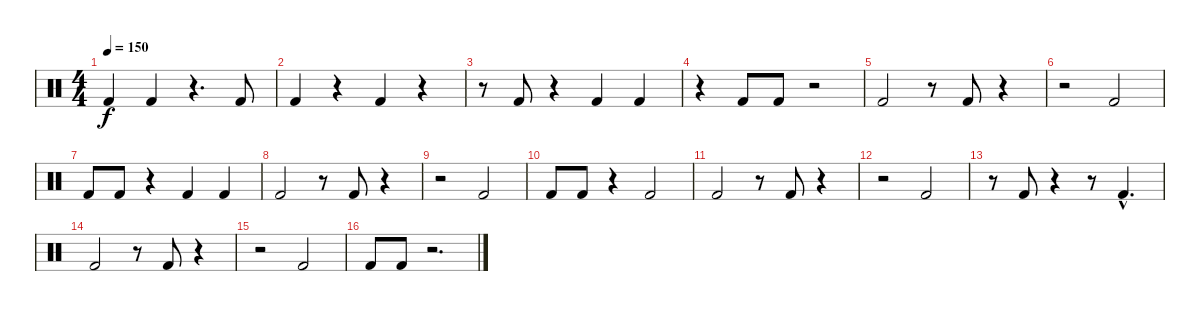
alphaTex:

\track "" {instrument percussion}
\staff {score}
\articulation defaults
\ts (4 4)
\tempo 150
\clef neutral
\ks c "Kick (hit) 2".4{dy f} "Kick (hit) 2".4
r.4{d} "Kick (hit) 2".8 |
"Kick (hit) 2".4 r.4 "Kick (hit) 2".4 r.4 |
r.8 "Kick (hit) 2".8 r.4 "Kick (hit) 2".4 "Kick (hit) 2".4 |
r.4 "Kick (hit) 2".8 "Kick (hit) 2".8 r.2 |
"Kick (hit) 2".2 r.8 "Kick (hit) 2".8 r.4 |
r.2 "Kick (hit) 2".2 |
"Kick (hit) 2".8 "Kick (hit) 2".8 r.4 "Kick (hit) 2".4 "Kick (hit) 2".4 |
"Kick (hit) 2".2 r.8 "Kick (hit) 2".8 r.4 |
r.2 "Kick (hit) 2".2 |
"Kick (hit) 2".8 "Kick (hit) 2".8 r.4 "Kick (hit) 2".2 |
"Kick (hit) 2".2 r.8 "Kick (hit) 2".8 r.4 |
r.2 "Kick (hit) 2".2 |
r.8 "Kick (hit) 2".8 r.4 r.8 "Kick (hit) 2"{hac}.4{d} |
"Kick (hit) 2".2 r.8 "Kick (hit) 2".8 r.4 |
r.2 "Kick (hit) 2".2 |
"Kick (hit) 2".8 "Kick (hit) 2".8 r.2{d}
